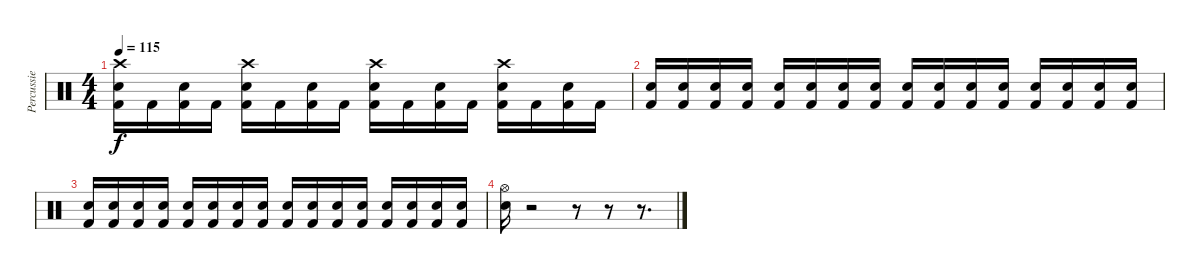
\track ("Percussie" "Percussie") {instrument percussion}
\staff {score}
\articulation defaults
\ts (4 4)
\tempo 115
\clef neutral
\ks c
("Crash high (hit)" "Snare (hit) 2" "Kick (hit) 2").16{dy f} "Kick (hit) 2".16 ("Snare (hit) 2" "Kick (hit) 2").16 "Kick (hit) 2".16 ("Crash high (hit)" "Snare (hit) 2" "Kick (hit) 2").16 "Kick (hit) 2".16 ("Snare (hit) 2" "Kick (hit) 2").16 "Kick (hit) 2".16 ("Crash high (hit)" "Snare (hit) 2" "Kick (hit) 2").16 "Kick (hit) 2".16 ("Snare (hit) 2" "Kick (hit) 2").16 "Kick (hit) 2".16 ("Crash high (hit)" "Snare (hit) 2" "Kick (hit) 2").16 "Kick (hit) 2".16 ("Snare (hit) 2" "Kick (hit) 2").16 "Kick (hit) 2".16 |
("Snare (hit) 2" "Kick (hit) 2").16 ("Snare (hit) 2" "Kick (hit) 2").16 ("Snare (hit) 2" "Kick (hit) 2").16 ("Snare (hit) 2" "Kick (hit) 2").16 ("Snare (hit) 2" "Kick (hit) 2").16 ("Snare (hit) 2" "Kick (hit) 2").16 ("Snare (hit) 2" "Kick (hit) 2").16 ("Snare (hit) 2" "Kick (hit) 2").16 ("Snare (hit) 2" "Kick (hit) 2").16 ("Snare (hit) 2" "Kick (hit) 2").16 ("Snare (hit) 2" "Kick (hit) 2").16 ("Snare (hit) 2" "Kick (hit) 2").16 ("Snare (hit) 2" "Kick (hit) 2").16 ("Snare (hit) 2" "Kick (hit) 2").16 ("Snare (hit) 2" "Kick (hit) 2").16 ("Snare (hit) 2" "Kick (hit) 2").16 |
("Snare (hit) 2" "Kick (hit) 2").16 ("Snare (hit) 2" "Kick (hit) 2").16 ("Snare (hit) 2" "Kick (hit) 2").16 ("Snare (hit) 2" "Kick (hit) 2").16 ("Snare (hit) 2" "Kick (hit) 2").16 ("Snare (hit) 2" "Kick (hit) 2").16 ("Snare (hit) 2" "Kick (hit) 2").16 ("Snare (hit) 2" "Kick (hit) 2").16 ("Snare (hit) 2" "Kick (hit) 2").16 ("Snare (hit) 2" "Kick (hit) 2").16 ("Snare (hit) 2" "Kick (hit) 2").16 ("Snare (hit) 2" "Kick (hit) 2").16 ("Snare (hit) 2" "Kick (hit) 2").16 ("Snare (hit) 2" "Kick (hit) 2").16 ("Snare (hit) 2" "Kick (hit) 2").16 ("Snare (hit) 2" "Kick (hit) 2").16 |
("Hi-Hat (open)" "Snare (hit) 2").16 r.2 r.8 r.8 r.8{d}
